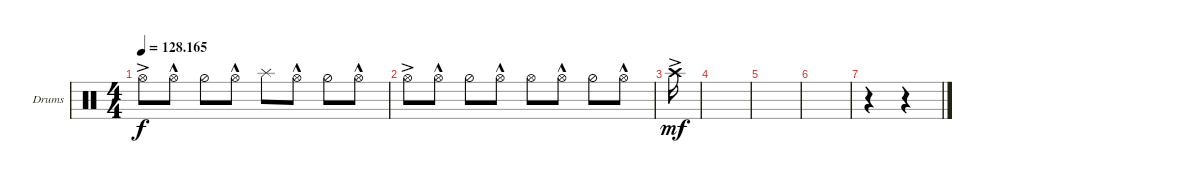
\defaultSystemsLayout 4
\bracketExtendMode groupsimilarinstruments
\firstSystemTrackNameOrientation horizontal
\otherSystemsTrackNameOrientation horizontal
\track ("Drumkit" "Drums") {instrument percussion}
\staff {score}
\articulation defaults
\ts (4 4)
\tempo
128.165
\accidentals auto
\clef neutral
\ottava regular
\simile none
\ks c "Hi-Hat (open)"{ac}.8{dy f} "Hi-Hat (open)"{hac}.8 "Hi-Hat (half)".8 "Hi-Hat (open)"{hac}.8 "Splash (hit)".8 "Hi-Hat (open)"{hac}.8 "Hi-Hat (half)".8 "Hi-Hat (open)"{hac}.8
|
"Hi-Hat (open)"{ac}.8 "Hi-Hat (open)"{hac}.8 "Hi-Hat (half)".8 "Hi-Hat (open)"{hac}.8 "Hi-Hat (open)".8 "Hi-Hat (open)"{hac}.8 "Hi-Hat (half)".8 "Hi-Hat (open)"{hac}.8 |
"Crash high (hit)"{ac}.16{dy mf} |
|
|
|
r.4 r.4
